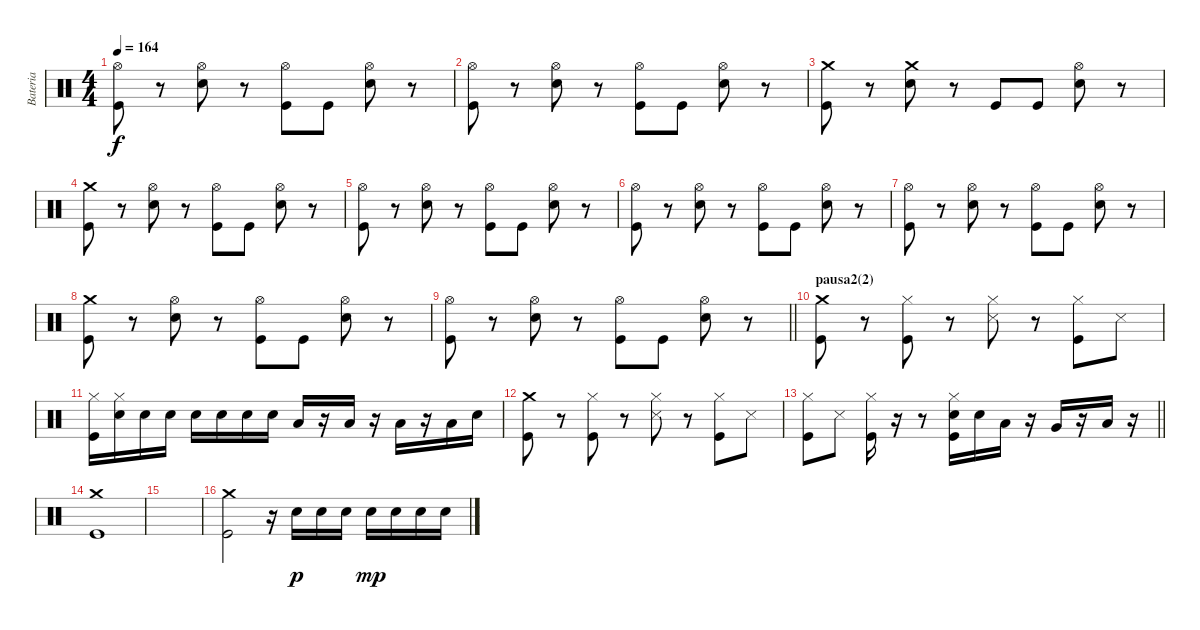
\track ("Bateria" "Bateria") {instrument percussion}
\staff {score}
\articulation defaults
\ts (4 4)
\tempo 164
\clef neutral
\ks c
("Hi-Hat (open)" "Kick (hit)").8{dy f} r.8 ("Hi-Hat (open)" "Snare (hit) 2").8 r.8 ("Hi-Hat (open)" "Kick (hit)").8 "Kick (hit)".8 ("Hi-Hat (open)" "Snare (hit) 2").8 r.8 |
("Hi-Hat (open)" "Kick (hit)").8 r.8 ("Hi-Hat (open)" "Snare (hit) 2").8 r.8 ("Hi-Hat (open)" "Kick (hit)").8 "Kick (hit)".8 ("Hi-Hat (open)" "Snare (hit) 2").8 r.8 |
("Crash medium (hit)" "Kick (hit)").8 r.8 ("Crash medium (hit)" "Snare (hit) 2").8 r.8 "Kick (hit)".8 "Kick (hit)".8 ("Hi-Hat (open)" "Snare (hit) 2").8 r.8 |
("Crash medium (hit)" "Kick (hit)").8 r.8 ("Hi-Hat (open)" "Snare (hit) 2").8 r.8 ("Hi-Hat (open)" "Kick (hit)").8 "Kick (hit)".8 ("Hi-Hat (open)" "Snare (hit) 2").8 r.8 |
("Hi-Hat (open)" "Kick (hit)").8 r.8 ("Hi-Hat (open)" "Snare (hit) 2").8 r.8 ("Hi-Hat (open)" "Kick (hit)").8 "Kick (hit)".8 ("Hi-Hat (open)" "Snare (hit) 2").8 r.8 |
("Hi-Hat (open)" "Kick (hit)").8 r.8 ("Hi-Hat (open)" "Snare (hit) 2").8 r.8 ("Hi-Hat (open)" "Kick (hit)").8 "Kick (hit)".8 ("Hi-Hat (open)" "Snare (hit) 2").8 r.8 |
("Hi-Hat (open)" "Kick (hit)").8 r.8 ("Hi-Hat (open)" "Snare (hit) 2").8 r.8 ("Hi-Hat (open)" "Kick (hit)").8 "Kick (hit)".8 ("Hi-Hat (open)" "Snare (hit) 2").8 r.8 |
("Crash medium (hit)" "Kick (hit)").8 r.8 ("Hi-Hat (open)" "Snare (hit) 2").8 r.8 ("Hi-Hat (open)" "Kick (hit)").8 "Kick (hit)".8 ("Hi-Hat (open)" "Snare (hit) 2").8 r.8 |
\barLineRight lightlight
("Hi-Hat (open)" "Kick (hit)").8 r.8 ("Hi-Hat (open)" "Snare (hit) 2").8 r.8 ("Hi-Hat (open)" "Kick (hit)").8 "Kick (hit)".8 ("Hi-Hat (open)" "Snare (hit) 2").8 r.8 |
\section ("" "pausa2(2)")
("Crash medium (hit)" "Kick (hit)").8 r.8 ("Hi-Hat (closed)" "Kick (hit)").8 r.8 ("Hi-Hat (closed)" "Snare (side stick) 3").8 r.8 ("Hi-Hat (closed)" "Kick (hit)").8 "Snare (side stick) 3".8 |
("Hi-Hat (closed)" "Kick (hit)").16 ("Hi-Hat (closed)" "Snare (hit) 2").16 "Snare (hit) 2".16 "Snare (hit) 2".16 "Snare (hit) 2".16 "Snare (hit) 2".16 "Snare (hit) 2".16 "Snare (hit) 2".16 "Low Floor Tom (hit)".16 r.16 "Low Floor Tom (hit)".16 r.16 "Low Floor Tom (hit)".16 r.16 "Low Floor Tom (hit)".16 "Snare (hit) 2".16 |
("Crash medium (hit)" "Kick (hit)").8 r.8 ("Hi-Hat (closed)" "Kick (hit)").8 r.8 ("Hi-Hat (closed)" "Snare (side stick) 3").8 r.8 ("Hi-Hat (closed)" "Kick (hit)").8 "Snare (side stick) 3".8 |
\barLineRight lightlight
("Hi-Hat (closed)" "Kick (hit)").8 "Snare (side stick) 3".8 ("Hi-Hat (closed)" "Kick (hit)").16 r.16 r.8 ("Hi-Hat (closed)" "Snare (hit) 2" "Kick (hit)").16 "Snare (hit) 2".16 "Low Tom (hit)".16 r.16 "Very Low Tom (hit)".16 r.16 "Low Floor Tom (hit)".16 r.16 |
("Crash medium (hit)" "Kick (hit)").1 |
|
("Crash medium (hit)" "Kick (hit)").2 r.16 "Snare (hit) 2".16{dy p} "Snare (hit) 2".16 "Snare (hit) 2".16 "Snare (hit) 2".16{dy mp} "Snare (hit) 2".16 "Snare (hit) 2".16 "Snare (hit) 2".16
